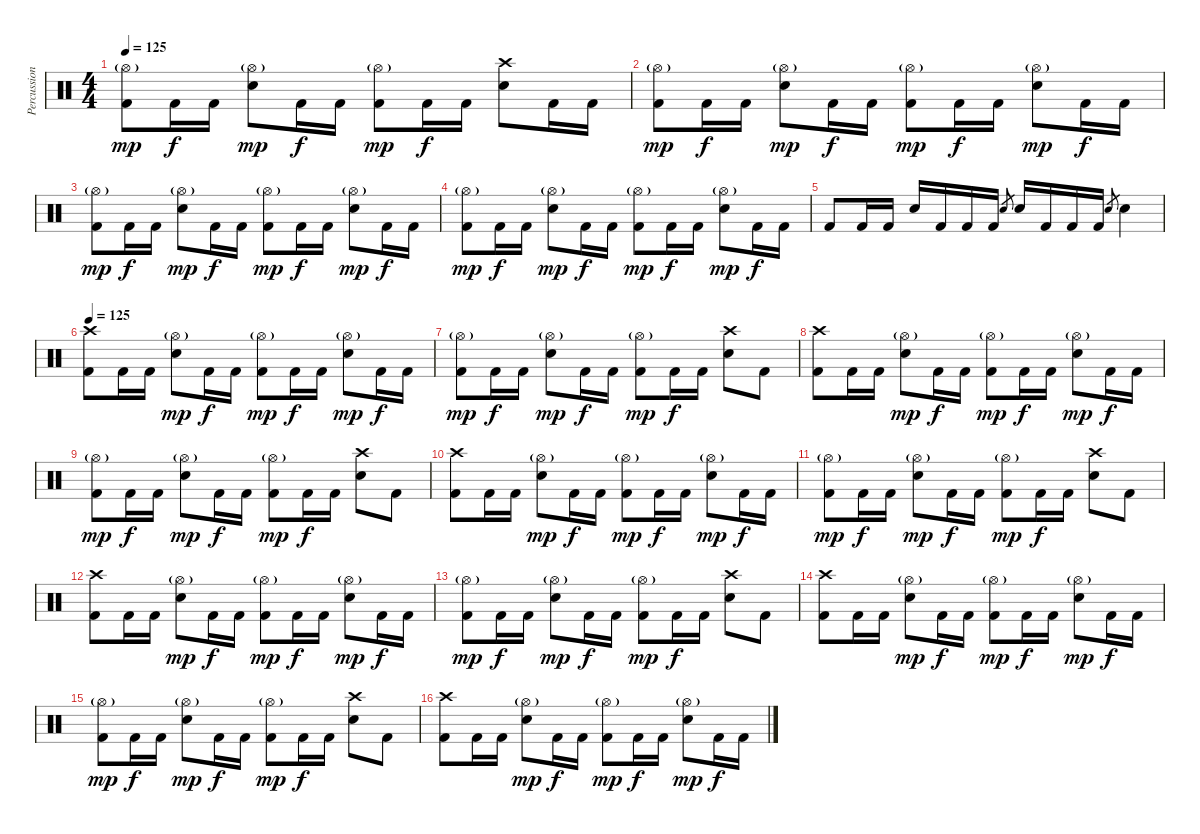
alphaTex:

\track ("Percussion" "Percussion") {instrument percussion}
\staff {score}
\articulation defaults
\ts (4 4)
\tempo 125
\clef neutral
\ks c
("Hi-Hat (open)"{g} "Kick (hit) 2").8{dy mp} "Kick (hit) 2".16{dy f} "Kick (hit) 2".16 ("Hi-Hat (open)"{g} "Electric Snare (hit)").8{dy mp} "Kick (hit) 2".16{dy f} "Kick (hit) 2".16 ("Hi-Hat (open)"{g} "Kick (hit) 2").8{dy mp} "Kick (hit) 2".16{dy f} "Kick (hit) 2".16 ("Crash high (hit)" "Electric Snare (hit)").8 "Kick (hit) 2".16 "Kick (hit) 2".16 |
("Hi-Hat (open)"{g} "Kick (hit) 2").8{dy mp} "Kick (hit) 2".16{dy f} "Kick (hit) 2".16 ("Hi-Hat (open)"{g} "Electric Snare (hit)").8{dy mp} "Kick (hit) 2".16{dy f} "Kick (hit) 2".16 ("Hi-Hat (open)"{g} "Kick (hit) 2").8{dy mp} "Kick (hit) 2".16{dy f} "Kick (hit) 2".16 ("Hi-Hat (open)"{g} "Electric Snare (hit)").8{dy mp} "Kick (hit) 2".16{dy f} "Kick (hit) 2".16 |
("Hi-Hat (open)"{g} "Kick (hit) 2").8{dy mp} "Kick (hit) 2".16{dy f} "Kick (hit) 2".16 ("Hi-Hat (open)"{g} "Electric Snare (hit)").8{dy mp} "Kick (hit) 2".16{dy f} "Kick (hit) 2".16 ("Hi-Hat (open)"{g} "Kick (hit) 2").8{dy mp} "Kick (hit) 2".16{dy f} "Kick (hit) 2".16 ("Hi-Hat (open)"{g} "Electric Snare (hit)").8{dy mp} "Kick (hit) 2".16{dy f} "Kick (hit) 2".16 |
("Hi-Hat (open)"{g} "Kick (hit) 2").8{dy mp} "Kick (hit) 2".16{dy f} "Kick (hit) 2".16 ("Hi-Hat (open)"{g} "Electric Snare (hit)").8{dy mp} "Kick (hit) 2".16{dy f} "Kick (hit) 2".16 ("Hi-Hat (open)"{g} "Kick (hit) 2").8{dy mp} "Kick (hit) 2".16{dy f} "Kick (hit) 2".16 ("Hi-Hat (open)"{g} "Electric Snare (hit)").8{dy mp} "Kick (hit) 2".16{dy f} "Kick (hit) 2".16 |
"Kick (hit) 2".8 "Kick (hit) 2".16 "Kick (hit) 2".16 "Electric Snare (hit)".16 "Kick (hit) 2".16 "Kick (hit) 2".16 "Kick (hit) 2".16 "Electric Snare (hit)".8{gr} "Electric Snare (hit)".16 "Kick (hit) 2".16 "Kick (hit) 2".16 "Kick (hit) 2".16 "Electric Snare (hit)".8{gr} "Electric Snare (hit)".4 |
\tempo 125
("Crash high (hit)" "Kick (hit) 2").8 "Kick (hit) 2".16 "Kick (hit) 2".16 ("Hi-Hat (open)"{g} "Electric Snare (hit)").8{dy mp} "Kick (hit) 2".16{dy f} "Kick (hit) 2".16 ("Hi-Hat (open)"{g} "Kick (hit) 2").8{dy mp} "Kick (hit) 2".16{dy f} "Kick (hit) 2".16 ("Hi-Hat (open)"{g} "Electric Snare (hit)").8{dy mp} "Kick (hit) 2".16{dy f} "Kick (hit) 2".16 |
("Hi-Hat (open)"{g} "Kick (hit) 2").8{dy mp} "Kick (hit) 2".16{dy f} "Kick (hit) 2".16 ("Hi-Hat (open)"{g} "Electric Snare (hit)").8{dy mp} "Kick (hit) 2".16{dy f} "Kick (hit) 2".16 ("Hi-Hat (open)"{g} "Kick (hit) 2").8{dy mp} "Kick (hit) 2".16{dy f} "Kick (hit) 2".16 ("Crash high (hit)" "Electric Snare (hit)").8 "Kick (hit) 2".8 |
("Crash high (hit)" "Kick (hit) 2").8 "Kick (hit) 2".16 "Kick (hit) 2".16 ("Hi-Hat (open)"{g} "Electric Snare (hit)").8{dy mp} "Kick (hit) 2".16{dy f} "Kick (hit) 2".16 ("Hi-Hat (open)"{g} "Kick (hit) 2").8{dy mp} "Kick (hit) 2".16{dy f} "Kick (hit) 2".16 ("Hi-Hat (open)"{g} "Electric Snare (hit)").8{dy mp} "Kick (hit) 2".16{dy f} "Kick (hit) 2".16 |
("Hi-Hat (open)"{g} "Kick (hit) 2").8{dy mp} "Kick (hit) 2".16{dy f} "Kick (hit) 2".16 ("Hi-Hat (open)"{g} "Electric Snare (hit)").8{dy mp} "Kick (hit) 2".16{dy f} "Kick (hit) 2".16 ("Hi-Hat (open)"{g} "Kick (hit) 2").8{dy mp} "Kick (hit) 2".16{dy f} "Kick (hit) 2".16 ("Crash high (hit)" "Electric Snare (hit)").8 "Kick (hit) 2".8 |
("Crash high (hit)" "Kick (hit) 2").8 "Kick (hit) 2".16 "Kick (hit) 2".16 ("Hi-Hat (open)"{g} "Electric Snare (hit)").8{dy mp} "Kick (hit) 2".16{dy f} "Kick (hit) 2".16 ("Hi-Hat (open)"{g} "Kick (hit) 2").8{dy mp} "Kick (hit) 2".16{dy f} "Kick (hit) 2".16 ("Hi-Hat (open)"{g} "Electric Snare (hit)").8{dy mp} "Kick (hit) 2".16{dy f} "Kick (hit) 2".16 |
("Hi-Hat (open)"{g} "Kick (hit) 2").8{dy mp} "Kick (hit) 2".16{dy f} "Kick (hit) 2".16 ("Hi-Hat (open)"{g} "Electric Snare (hit)").8{dy mp} "Kick (hit) 2".16{dy f} "Kick (hit) 2".16 ("Hi-Hat (open)"{g} "Kick (hit) 2").8{dy mp} "Kick (hit) 2".16{dy f} "Kick (hit) 2".16 ("Crash high (hit)" "Electric Snare (hit)").8 "Kick (hit) 2".8 |
("Crash high (hit)" "Kick (hit) 2").8 "Kick (hit) 2".16 "Kick (hit) 2".16 ("Hi-Hat (open)"{g} "Electric Snare (hit)").8{dy mp} "Kick (hit) 2".16{dy f} "Kick (hit) 2".16 ("Hi-Hat (open)"{g} "Kick (hit) 2").8{dy mp} "Kick (hit) 2".16{dy f} "Kick (hit) 2".16 ("Hi-Hat (open)"{g} "Electric Snare (hit)").8{dy mp} "Kick (hit) 2".16{dy f} "Kick (hit) 2".16 |
("Hi-Hat (open)"{g} "Kick (hit) 2").8{dy mp} "Kick (hit) 2".16{dy f} "Kick (hit) 2".16 ("Hi-Hat (open)"{g} "Electric Snare (hit)").8{dy mp} "Kick (hit) 2".16{dy f} "Kick (hit) 2".16 ("Hi-Hat (open)"{g} "Kick (hit) 2").8{dy mp} "Kick (hit) 2".16{dy f} "Kick (hit) 2".16 ("Crash high (hit)" "Electric Snare (hit)").8 "Kick (hit) 2".8 |
("Crash high (hit)" "Kick (hit) 2").8 "Kick (hit) 2".16 "Kick (hit) 2".16 ("Hi-Hat (open)"{g} "Electric Snare (hit)").8{dy mp} "Kick (hit) 2".16{dy f} "Kick (hit) 2".16 ("Hi-Hat (open)"{g} "Kick (hit) 2").8{dy mp} "Kick (hit) 2".16{dy f} "Kick (hit) 2".16 ("Hi-Hat (open)"{g} "Electric Snare (hit)").8{dy mp} "Kick (hit) 2".16{dy f} "Kick (hit) 2".16 |
("Hi-Hat (open)"{g} "Kick (hit) 2").8{dy mp} "Kick (hit) 2".16{dy f} "Kick (hit) 2".16 ("Hi-Hat (open)"{g} "Electric Snare (hit)").8{dy mp} "Kick (hit) 2".16{dy f} "Kick (hit) 2".16 ("Hi-Hat (open)"{g} "Kick (hit) 2").8{dy mp} "Kick (hit) 2".16{dy f} "Kick (hit) 2".16 ("Crash high (hit)" "Electric Snare (hit)").8 "Kick (hit) 2".8 |
("Crash high (hit)" "Kick (hit) 2").8 "Kick (hit) 2".16 "Kick (hit) 2".16 ("Hi-Hat (open)"{g} "Electric Snare (hit)").8{dy mp} "Kick (hit) 2".16{dy f} "Kick (hit) 2".16 ("Hi-Hat (open)"{g} "Kick (hit) 2").8{dy mp} "Kick (hit) 2".16{dy f} "Kick (hit) 2".16 ("Hi-Hat (open)"{g} "Electric Snare (hit)").8{dy mp} "Kick (hit) 2".16{dy f} "Kick (hit) 2".16
